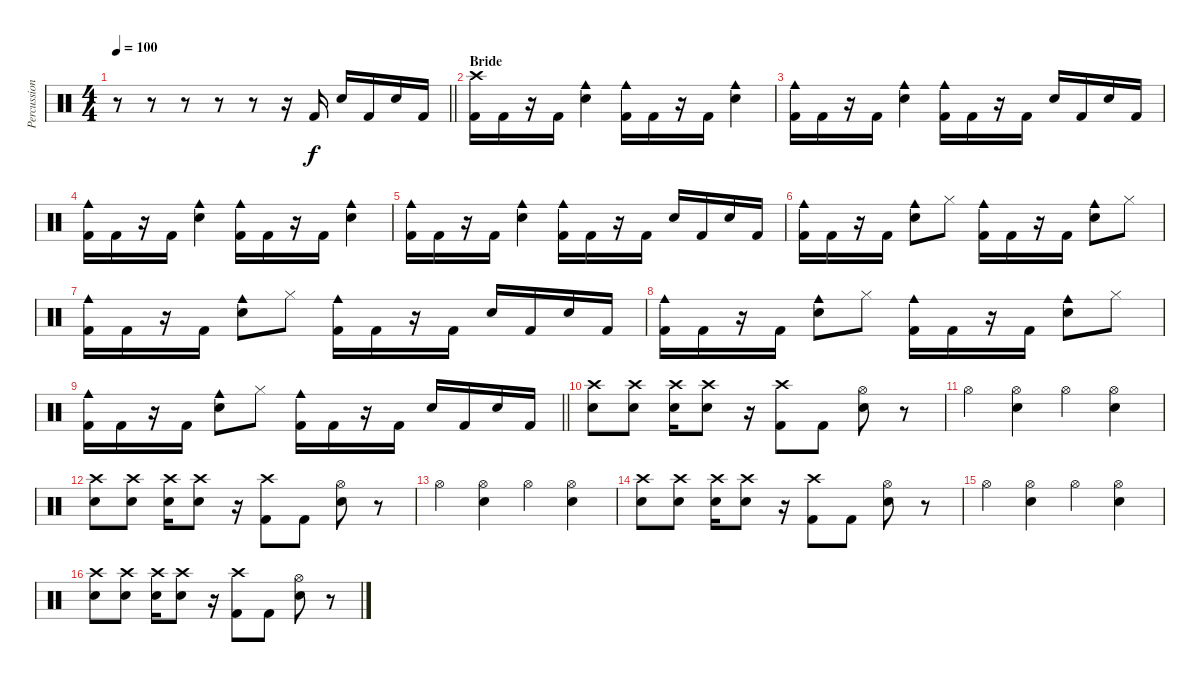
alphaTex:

\track ("Percussion" "Percussion") {instrument percussion}
\staff {score}
\articulation defaults
\ts (4 4)
\tempo 100
\clef neutral
\barLineRight lightlight
\ks c
r.8{dy f} r.8 r.8 r.8 r.8 r.16 "Kick (hit) 2".16 "Snare (hit) 2".16 "Kick (hit) 2".16 "Snare (hit) 2".16 "Kick (hit) 2".16 |
\section ("" "Bride")
("Crash high (hit)" "Kick (hit) 2").16 "Kick (hit) 2".16 r.16 "Kick (hit) 2".16 ("Cowbell medium (hit)" "Snare (hit) 2").4 ("Cowbell medium (hit)" "Kick (hit) 2").16 "Kick (hit) 2".16 r.16 "Kick (hit) 2".16 ("Cowbell medium (hit)" "Snare (hit) 2").4 |
("Cowbell medium (hit)" "Kick (hit) 2").16 "Kick (hit) 2".16 r.16 "Kick (hit) 2".16 ("Cowbell medium (hit)" "Snare (hit) 2").4 ("Cowbell medium (hit)" "Kick (hit) 2").16 "Kick (hit) 2".16 r.16 "Kick (hit) 2".16 "Snare (hit) 2".16 "Kick (hit) 2".16 "Snare (hit) 2".16 "Kick (hit) 2".16 |
("Cowbell medium (hit)" "Kick (hit) 2").16 "Kick (hit) 2".16 r.16 "Kick (hit) 2".16 ("Cowbell medium (hit)" "Snare (hit) 2").4 ("Cowbell medium (hit)" "Kick (hit) 2").16 "Kick (hit) 2".16 r.16 "Kick (hit) 2".16 ("Cowbell medium (hit)" "Snare (hit) 2").4 |
("Cowbell medium (hit)" "Kick (hit) 2").16 "Kick (hit) 2".16 r.16 "Kick (hit) 2".16 ("Cowbell medium (hit)" "Snare (hit) 2").4 ("Cowbell medium (hit)" "Kick (hit) 2").16 "Kick (hit) 2".16 r.16 "Kick (hit) 2".16 "Snare (hit) 2".16 "Kick (hit) 2".16 "Snare (hit) 2".16 "Kick (hit) 2".16 |
("Cowbell medium (hit)" "Kick (hit) 2").16 "Kick (hit) 2".16 r.16 "Kick (hit) 2".16 ("Cowbell medium (hit)" "Snare (hit) 2").8 "Hi-Hat (closed)".8 ("Cowbell medium (hit)" "Kick (hit) 2").16 "Kick (hit) 2".16 r.16 "Kick (hit) 2".16 ("Cowbell medium (hit)" "Snare (hit) 2").8 "Hi-Hat (closed)".8 |
("Cowbell medium (hit)" "Kick (hit) 2").16 "Kick (hit) 2".16 r.16 "Kick (hit) 2".16 ("Cowbell medium (hit)" "Snare (hit) 2").8 "Hi-Hat (closed)".8 ("Cowbell medium (hit)" "Kick (hit) 2").16 "Kick (hit) 2".16 r.16 "Kick (hit) 2".16 "Snare (hit) 2".16 "Kick (hit) 2".16 "Snare (hit) 2".16 "Kick (hit) 2".16 |
("Cowbell medium (hit)" "Kick (hit) 2").16 "Kick (hit) 2".16 r.16 "Kick (hit) 2".16 ("Cowbell medium (hit)" "Snare (hit) 2").8 "Hi-Hat (closed)".8 ("Cowbell medium (hit)" "Kick (hit) 2").16 "Kick (hit) 2".16 r.16 "Kick (hit) 2".16 ("Cowbell medium (hit)" "Snare (hit) 2").8 "Hi-Hat (closed)".8 |
\barLineRight lightlight
("Cowbell medium (hit)" "Kick (hit) 2").16 "Kick (hit) 2".16 r.16 "Kick (hit) 2".16 ("Cowbell medium (hit)" "Snare (hit) 2").8 "Hi-Hat (closed)".8 ("Cowbell medium (hit)" "Kick (hit) 2").16 "Kick (hit) 2".16 r.16 "Kick (hit) 2".16 "Snare (hit) 2".16 "Kick (hit) 2".16 "Snare (hit) 2".16 "Kick (hit) 2".16 |
("Crash high (hit)" "Snare (hit) 2").8 ("Crash high (hit)" "Snare (hit) 2").8 ("Crash high (hit)" "Snare (hit) 2").16 ("Crash high (hit)" "Snare (hit) 2").8 r.16 ("Crash high (hit)" "Kick (hit) 2").8 "Kick (hit) 2".8 ("Hi-Hat (open)" "Snare (hit) 2").8 r.8 |
"Hi-Hat (open)".4 ("Hi-Hat (open)" "Snare (hit) 2").4 "Hi-Hat (open)".4 ("Hi-Hat (open)" "Snare (hit) 2").4 |
("Crash high (hit)" "Snare (hit) 2").8 ("Crash high (hit)" "Snare (hit) 2").8 ("Crash high (hit)" "Snare (hit) 2").16 ("Crash high (hit)" "Snare (hit) 2").8 r.16 ("Crash high (hit)" "Kick (hit) 2").8 "Kick (hit) 2".8 ("Hi-Hat (open)" "Snare (hit) 2").8 r.8 |
"Hi-Hat (open)".4 ("Hi-Hat (open)" "Snare (hit) 2").4 "Hi-Hat (open)".4 ("Hi-Hat (open)" "Snare (hit) 2").4 |
("Crash high (hit)" "Snare (hit) 2").8 ("Crash high (hit)" "Snare (hit) 2").8 ("Crash high (hit)" "Snare (hit) 2").16 ("Crash high (hit)" "Snare (hit) 2").8 r.16 ("Crash high (hit)" "Kick (hit) 2").8 "Kick (hit) 2".8 ("Hi-Hat (open)" "Snare (hit) 2").8 r.8 |
"Hi-Hat (open)".4 ("Hi-Hat (open)" "Snare (hit) 2").4 "Hi-Hat (open)".4 ("Hi-Hat (open)" "Snare (hit) 2").4 |
("Crash high (hit)" "Snare (hit) 2").8 ("Crash high (hit)" "Snare (hit) 2").8 ("Crash high (hit)" "Snare (hit) 2").16 ("Crash high (hit)" "Snare (hit) 2").8 r.16 ("Crash high (hit)" "Kick (hit) 2").8 "Kick (hit) 2".8 ("Hi-Hat (open)" "Snare (hit) 2").8 r.8
